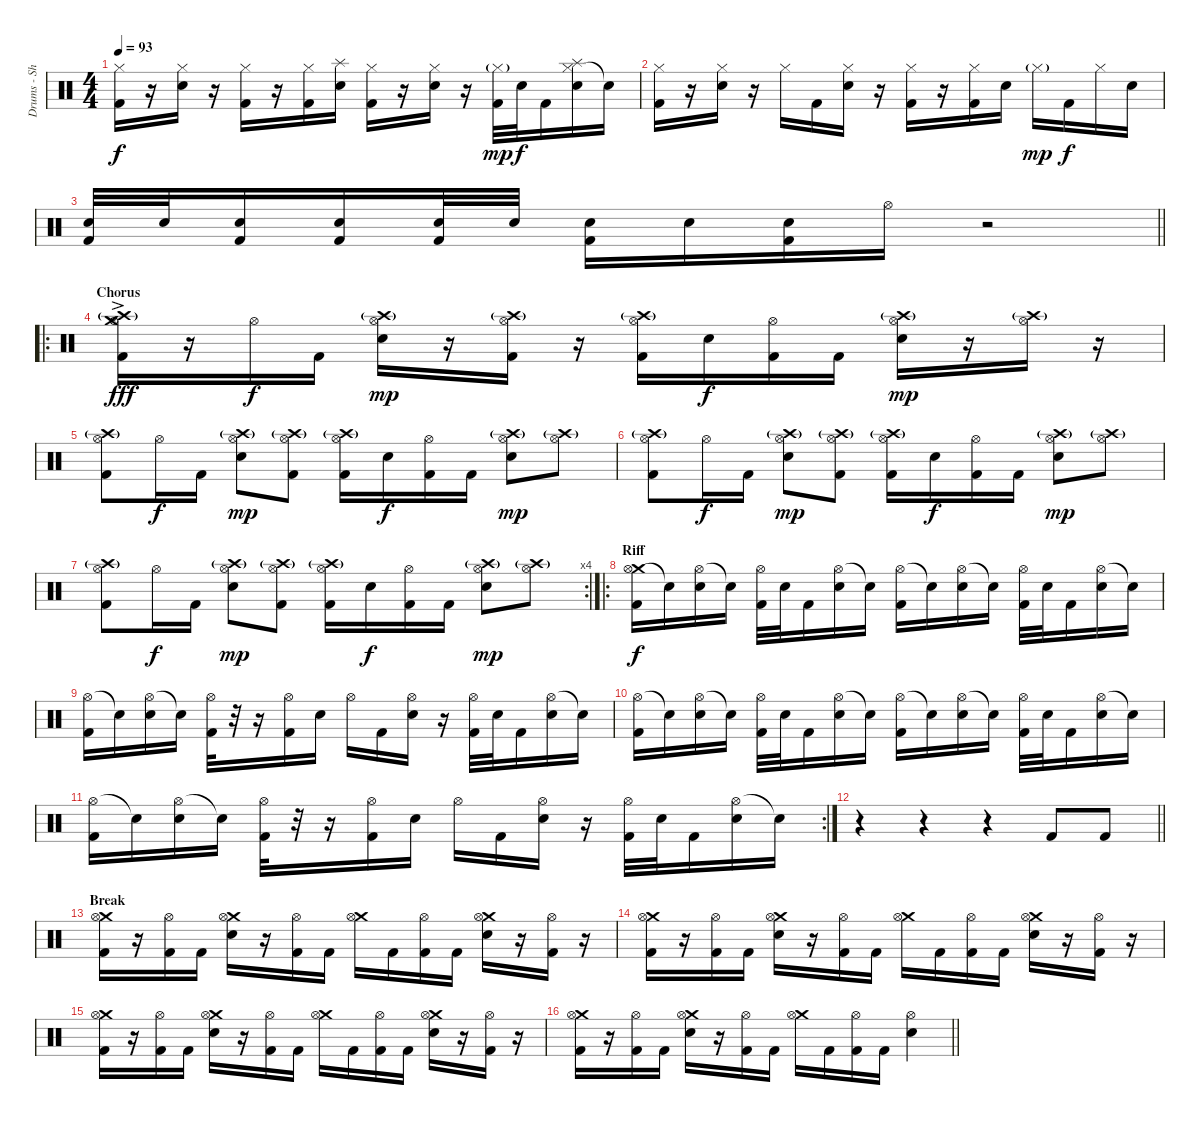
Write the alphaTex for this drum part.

\track ("Drums - Shinya" "Drums - Sh") {instrument percussion}
\staff {score}
\articulation defaults
\ts (4 4)
\tempo 93
\clef neutral
\ks c
("Hi-Hat (closed)" "Kick (hit) 2").16{dy f} r.16 ("Hi-Hat (closed)" "Electric Snare (hit)").16 r.16 ("Hi-Hat (closed)" "Kick (hit) 2").16 r.16 ("Hi-Hat (closed)" "Kick (hit) 2").16 ("Splash (hit)" "Electric Snare (hit)").16 ("Hi-Hat (closed)" "Kick (hit) 2").16 r.16 ("Hi-Hat (closed)" "Electric Snare (hit)").16 r.16 ("Hi-Hat (closed)"{g} "Kick (hit) 2").32{dy mp} "Electric Snare (hit)".32{dy f} "Kick (hit) 2".16 ("Hi-Hat (closed)" "Splash (hit)" "Electric Snare (hit)").16 "Snare (hit)"{t}.16 |
("Hi-Hat (closed)" "Kick (hit) 2").16 r.16 ("Hi-Hat (closed)" "Electric Snare (hit)").16 r.16 "Hi-Hat (closed)".16 "Kick (hit) 2".16 ("Hi-Hat (closed)" "Electric Snare (hit)").16 r.16 ("Hi-Hat (closed)" "Kick (hit) 2").16 r.16 ("Hi-Hat (closed)" "Kick (hit) 2").16 "Electric Snare (hit)".16 "Hi-Hat (closed)"{g}.16{dy mp} "Kick (hit) 2".16{dy f} "Hi-Hat (closed)".16 "Electric Snare (hit)".16 |
\barLineRight lightlight
("Electric Snare (hit)" "Kick (hit) 2").32 "Electric Snare (hit)".32 ("Electric Snare (hit)" "Kick (hit) 2").16 ("Electric Snare (hit)" "Kick (hit) 2").16 ("Electric Snare (hit)" "Kick (hit) 2").32 "Electric Snare (hit)".32 ("Electric Snare (hit)" "Kick (hit) 2").16 "Electric Snare (hit)".16 ("Electric Snare (hit)" "Kick (hit) 2").16 "Hi-Hat (open)".16 r.2 |
\ro
\section ("" "Chorus")
("Crash high (hit)"{g} "Hi-Hat (open)" "Crash medium (hit)"{ac} "Kick (hit) 2").16{dy fff} r.16 "Hi-Hat (open)".16{dy f} "Kick (hit) 2".16 ("Crash high (hit)"{g} "Hi-Hat (open)" "Electric Snare (hit)").16{dy mp} r.16 ("Crash high (hit)"{g} "Hi-Hat (open)" "Kick (hit) 2").16 r.16 ("Crash high (hit)"{g} "Hi-Hat (open)" "Kick (hit) 2").16 "Electric Snare (hit)".16{dy f} ("Hi-Hat (open)" "Kick (hit) 2").16 "Kick (hit) 2".16 ("Crash high (hit)"{g} "Hi-Hat (open)" "Electric Snare (hit)").16{dy mp} r.16 ("Crash high (hit)"{g} "Hi-Hat (open)").16 r.16 |
("Crash high (hit)"{g} "Hi-Hat (open)" "Kick (hit) 2").8 "Hi-Hat (open)".16{dy f} "Kick (hit) 2".16 ("Crash high (hit)"{g} "Hi-Hat (open)" "Electric Snare (hit)").8{dy mp} ("Crash high (hit)"{g} "Hi-Hat (open)" "Kick (hit) 2").8 ("Crash high (hit)"{g} "Hi-Hat (open)" "Kick (hit) 2").16 "Electric Snare (hit)".16{dy f} ("Hi-Hat (open)" "Kick (hit) 2").16 "Kick (hit) 2".16 ("Crash high (hit)"{g} "Hi-Hat (open)" "Electric Snare (hit)").8{dy mp} ("Crash high (hit)"{g} "Hi-Hat (open)").8 |
("Crash high (hit)"{g} "Hi-Hat (open)" "Kick (hit) 2").8 "Hi-Hat (open)".16{dy f} "Kick (hit) 2".16 ("Crash high (hit)"{g} "Hi-Hat (open)" "Electric Snare (hit)").8{dy mp} ("Crash high (hit)"{g} "Hi-Hat (open)" "Kick (hit) 2").8 ("Crash high (hit)"{g} "Hi-Hat (open)" "Kick (hit) 2").16 "Electric Snare (hit)".16{dy f} ("Hi-Hat (open)" "Kick (hit) 2").16 "Kick (hit) 2".16 ("Crash high (hit)"{g} "Hi-Hat (open)" "Electric Snare (hit)").8{dy mp} ("Crash high (hit)"{g} "Hi-Hat (open)").8 |
\rc 4
("Crash high (hit)"{g} "Hi-Hat (open)" "Kick (hit) 2").8 "Hi-Hat (open)".16{dy f} "Kick (hit) 2".16 ("Crash high (hit)"{g} "Hi-Hat (open)" "Electric Snare (hit)").8{dy mp} ("Crash high (hit)"{g} "Hi-Hat (open)" "Kick (hit) 2").8 ("Crash high (hit)"{g} "Hi-Hat (open)" "Kick (hit) 2").16 "Electric Snare (hit)".16{dy f} ("Hi-Hat (open)" "Kick (hit) 2").16 "Kick (hit) 2".16 ("Crash high (hit)"{g} "Hi-Hat (open)" "Electric Snare (hit)").8{dy mp} ("Crash high (hit)"{g} "Hi-Hat (open)").8 |
\ro
\section ("" "Riff")
("Crash medium (hit)" "Hi-Hat (open)" "Kick (hit) 2").16{dy f} "Snare (hit)"{t}.16 ("Hi-Hat (open)" "Electric Snare (hit)").16 "Snare (hit)"{t}.16 ("Hi-Hat (open)" "Kick (hit) 2").32 "Electric Snare (hit)".32 "Kick (hit) 2".16 ("Hi-Hat (open)" "Electric Snare (hit)").16 "Snare (hit)"{t}.16 ("Hi-Hat (open)" "Kick (hit) 2").16 "Snare (hit)"{t}.16 ("Hi-Hat (open)" "Electric Snare (hit)").16 "Electric Snare (hit)"{t}.16 ("Hi-Hat (open)" "Kick (hit) 2").32 "Electric Snare (hit)".32 "Kick (hit) 2".16 ("Hi-Hat (open)" "Electric Snare (hit)").16 "Snare (hit)"{t}.16 |
("Hi-Hat (open)" "Kick (hit) 2").16 "Snare (hit)"{t}.16 ("Hi-Hat (open)" "Electric Snare (hit)").16 "Snare (hit)"{t}.16 ("Hi-Hat (open)" "Kick (hit) 2").32 r.32 r.16 ("Hi-Hat (open)" "Kick (hit) 2").16 "Electric Snare (hit)".16 "Hi-Hat (open)".16 "Kick (hit) 2".16 ("Hi-Hat (open)" "Electric Snare (hit)").16 r.16 ("Hi-Hat (open)" "Kick (hit) 2").32 "Electric Snare (hit)".32 "Kick (hit) 2".16 ("Hi-Hat (open)" "Electric Snare (hit)").16 "Snare (hit)"{t}.16 |
("Hi-Hat (open)" "Kick (hit) 2").16 "Snare (hit)"{t}.16 ("Hi-Hat (open)" "Electric Snare (hit)").16 "Snare (hit)"{t}.16 ("Hi-Hat (open)" "Kick (hit) 2").32 "Electric Snare (hit)".32 "Kick (hit) 2".16 ("Hi-Hat (open)" "Electric Snare (hit)").16 "Snare (hit)"{t}.16 ("Hi-Hat (open)" "Kick (hit) 2").16 "Snare (hit)"{t}.16 ("Hi-Hat (open)" "Electric Snare (hit)").16 "Electric Snare (hit)"{t}.16 ("Hi-Hat (open)" "Kick (hit) 2").32 "Electric Snare (hit)".32 "Kick (hit) 2".16 ("Hi-Hat (open)" "Electric Snare (hit)").16 "Snare (hit)"{t}.16 |
\rc 2
("Hi-Hat (open)" "Kick (hit) 2").16 "Snare (hit)"{t}.16 ("Hi-Hat (open)" "Electric Snare (hit)").16 "Snare (hit)"{t}.16 ("Hi-Hat (open)" "Kick (hit) 2").32 r.32 r.16 ("Hi-Hat (open)" "Kick (hit) 2").16 "Electric Snare (hit)".16 "Hi-Hat (open)".16 "Kick (hit) 2".16 ("Hi-Hat (open)" "Electric Snare (hit)").16 r.16 ("Hi-Hat (open)" "Kick (hit) 2").32 "Electric Snare (hit)".32 "Kick (hit) 2".16 ("Hi-Hat (open)" "Electric Snare (hit)").16 "Snare (hit)"{t}.16 |
\barLineRight lightlight
r.4 r.4 r.4 "Kick (hit) 2".8 "Kick (hit) 2".8 |
\section ("" "Break")
("Crash medium (hit)" "Hi-Hat (open)" "Kick (hit) 2").16 r.16 ("Hi-Hat (open)" "Kick (hit) 2").16 "Kick (hit) 2".16 ("Crash medium (hit)" "Hi-Hat (open)" "Electric Snare (hit)").16 r.16 ("Hi-Hat (open)" "Kick (hit) 2").16 "Kick (hit) 2".16 ("Crash medium (hit)" "Hi-Hat (open)").16 "Kick (hit) 2".16 ("Hi-Hat (open)" "Kick (hit) 2").16 "Kick (hit) 2".16 ("Crash medium (hit)" "Hi-Hat (open)" "Electric Snare (hit)").16 r.16 ("Hi-Hat (open)" "Kick (hit) 2").16 r.16 |
("Crash medium (hit)" "Hi-Hat (open)" "Kick (hit) 2").16 r.16 ("Hi-Hat (open)" "Kick (hit) 2").16 "Kick (hit) 2".16 ("Crash medium (hit)" "Hi-Hat (open)" "Electric Snare (hit)").16 r.16 ("Hi-Hat (open)" "Kick (hit) 2").16 "Kick (hit) 2".16 ("Crash medium (hit)" "Hi-Hat (open)").16 "Kick (hit) 2".16 ("Hi-Hat (open)" "Kick (hit) 2").16 "Kick (hit) 2".16 ("Crash medium (hit)" "Hi-Hat (open)" "Electric Snare (hit)").16 r.16 ("Hi-Hat (open)" "Kick (hit) 2").16 r.16 |
("Crash medium (hit)" "Hi-Hat (open)" "Kick (hit) 2").16 r.16 ("Hi-Hat (open)" "Kick (hit) 2").16 "Kick (hit) 2".16 ("Crash medium (hit)" "Hi-Hat (open)" "Electric Snare (hit)").16 r.16 ("Hi-Hat (open)" "Kick (hit) 2").16 "Kick (hit) 2".16 ("Crash medium (hit)" "Hi-Hat (open)").16 "Kick (hit) 2".16 ("Hi-Hat (open)" "Kick (hit) 2").16 "Kick (hit) 2".16 ("Crash medium (hit)" "Hi-Hat (open)" "Electric Snare (hit)").16 r.16 ("Hi-Hat (open)" "Kick (hit) 2").16 r.16 |
\barLineRight lightlight
("Crash medium (hit)" "Hi-Hat (open)" "Kick (hit) 2").16 r.16 ("Hi-Hat (open)" "Kick (hit) 2").16 "Kick (hit) 2".16 ("Crash medium (hit)" "Hi-Hat (open)" "Electric Snare (hit)").16 r.16 ("Hi-Hat (open)" "Kick (hit) 2").16 "Kick (hit) 2".16 ("Crash medium (hit)" "Hi-Hat (open)").16 "Kick (hit) 2".16 ("Hi-Hat (open)" "Kick (hit) 2").16 "Kick (hit) 2".16 ("Hi-Hat (open)" "Electric Snare (hit)").4
